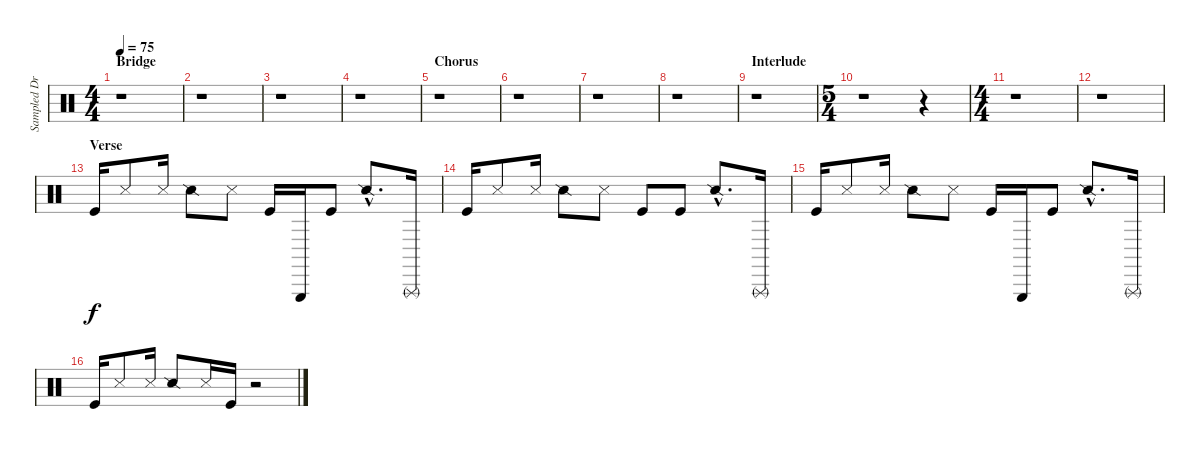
\track ("Sampled Drums" "Sampled Dr") {instrument percussion}
\staff {score}
\articulation defaults
\ts (4 4)
\section ("" "Bridge")
\tempo 75
\clef neutral
\ks c
r.1{dy f} |
r.1 |
r.1 |
r.1 |
\section ("" "Chorus")
r.1 |
r.1 |
r.1 |
r.1 |
\section ("" "Interlude")
r.1 |
\ts (5 4)
r.1 r.4 |
\ts (4 4)
r.1 |
r.1 |
\section ("" "Verse")
"Kick (hit)".16 "Snare (side stick) 3".8 "Snare (side stick) 3".16 "Snare (side stick) 2".8 "Snare (side stick) 3".8 "Kick (hit)".16 "Triangle (hit)".16 "Kick (hit)".8 "Snare (side stick) 2"{hac}.8{d} "Triangle (rnute)".16 |
"Kick (hit)".16 "Snare (side stick) 3".8 "Snare (side stick) 3".16 "Snare (side stick) 2".8 "Snare (side stick) 3".8 "Kick (hit)".8 "Kick (hit)".8 "Snare (side stick) 2"{hac}.8{d} "Triangle (rnute)".16 |
"Kick (hit)".16 "Snare (side stick) 3".8 "Snare (side stick) 3".16 "Snare (side stick) 2".8 "Snare (side stick) 3".8 "Kick (hit)".16 "Triangle (hit)".16 "Kick (hit)".8 "Snare (side stick) 2"{hac}.8{d} "Triangle (rnute)".16 |
"Kick (hit)".16 "Snare (side stick) 3".8 "Snare (side stick) 3".16 "Snare (side stick) 2".8 "Snare (side stick) 3".16 "Kick (hit)".16 r.2
